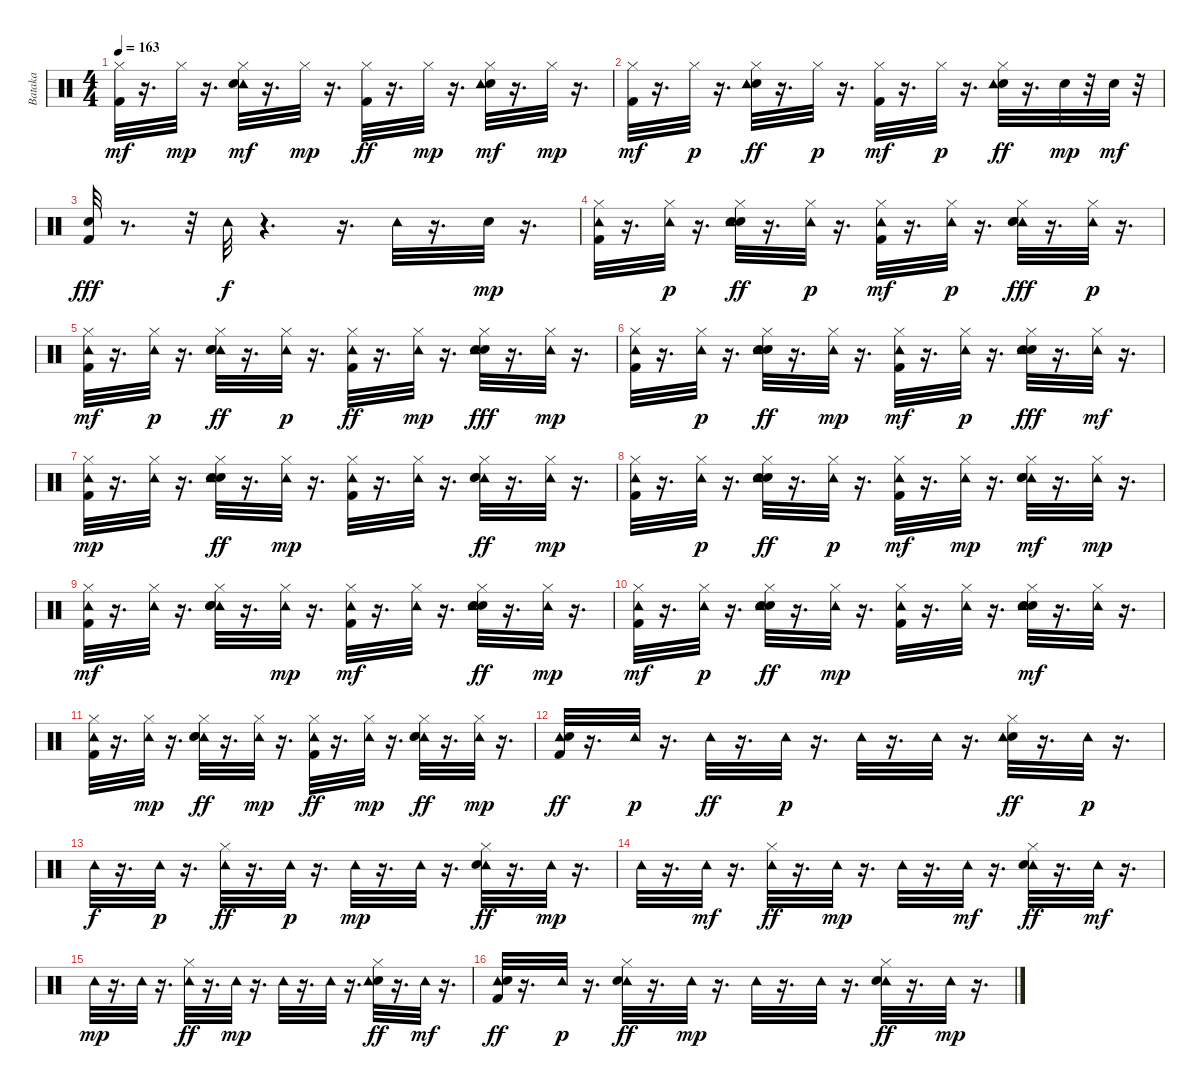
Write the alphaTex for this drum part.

\track ("Bataka" "Bataka") {instrument percussion}
\staff {score}
\articulation defaults
\ts (4 4)
\tempo 163
\clef neutral
\ks c
("Hi-Hat (closed)" "Kick (hit) 2").32{dy mf} r.16{d} "Hi-Hat (closed)".32{dy mp} r.16{d} ("Tambourine (hit)" "Electric Snare (hit)" "Hi-Hat (closed)").32{dy mf} r.16{d} "Hi-Hat (closed)".32{dy mp} r.16{d} ("Hi-Hat (closed)" "Kick (hit) 2").32{dy ff} r.16{d} "Hi-Hat (closed)".32{dy mp} r.16{d} ("Electric Snare (hit)" "Tambourine (hit)" "Hi-Hat (closed)").32{dy mf} r.16{d} "Hi-Hat (closed)".32{dy mp} r.16{d} |
("Kick (hit) 2" "Hi-Hat (closed)").32{dy mf} r.16{d} "Hi-Hat (closed)".32{dy p} r.16{d} ("Hi-Hat (closed)" "Electric Snare (hit)" "Tambourine (hit)").32{dy ff} r.16{d} "Hi-Hat (closed)".32{dy p} r.16{d} ("Kick (hit) 2" "Hi-Hat (closed)").32{dy mf} r.16{d} "Hi-Hat (closed)".32{dy p} r.16{d} ("Hi-Hat (closed)" "Electric Snare (hit)" "Tambourine (hit)").32{dy ff} r.16{d} "Electric Snare (hit)".32{dy mp} r.32 "Electric Snare (hit)".32{dy mf} r.32 |
("Kick (hit) 2" "Electric Snare (hit)").32{dy fff} r.8{d} r.32 "Tambourine (hit)".32{dy f} r.4{d} r.16{d} "Tambourine (hit)".32 r.16{d} "Electric Snare (hit)".32{dy mp} r.16{d} |
("Kick (hit) 2" "Hi-Hat (closed)" "Tambourine (hit)").32 r.16{d} ("Tambourine (hit)" "Hi-Hat (closed)").32{dy p} r.16{d} ("Hi-Hat (closed)" "Hand Clap (hit)" "Electric Snare (hit)" "Tambourine (hit)").32{dy ff} r.16{d} ("Hi-Hat (closed)" "Tambourine (hit)").32{dy p} r.16{d} ("Tambourine (hit)" "Kick (hit) 2" "Hi-Hat (closed)").32{dy mf} r.16{d} ("Hi-Hat (closed)" "Tambourine (hit)").32{dy p} r.16{d} ("Tambourine (hit)" "Hi-Hat (closed)" "Hand Clap (hit)" "Electric Snare (hit)").32{dy fff} r.16{d} ("Hi-Hat (closed)" "Tambourine (hit)").32{dy p} r.16{d} |
("Hi-Hat (closed)" "Tambourine (hit)" "Kick (hit) 2").32{dy mf} r.16{d} ("Hi-Hat (closed)" "Tambourine (hit)").32{dy p} r.16{d} ("Tambourine (hit)" "Hand Clap (hit)" "Hi-Hat (closed)" "Electric Snare (hit)").32{dy ff} r.16{d} ("Hi-Hat (closed)" "Tambourine (hit)").32{dy p} r.16{d} ("Hi-Hat (closed)" "Tambourine (hit)" "Kick (hit) 2").32{dy ff} r.16{d} ("Hi-Hat (closed)" "Tambourine (hit)").32{dy mp} r.16{d} ("Hi-Hat (closed)" "Hand Clap (hit)" "Tambourine (hit)" "Electric Snare (hit)").32{dy fff} r.16{d} ("Hi-Hat (closed)" "Tambourine (hit)").32{dy mp} r.16{d} |
("Kick (hit) 2" "Hi-Hat (closed)" "Tambourine (hit)").32 r.16{d} ("Tambourine (hit)" "Hi-Hat (closed)").32{dy p} r.16{d} ("Electric Snare (hit)" "Hi-Hat (closed)" "Tambourine (hit)" "Hand Clap (hit)").32{dy ff} r.16{d} ("Hi-Hat (closed)" "Tambourine (hit)").32{dy mp} r.16{d} ("Tambourine (hit)" "Hi-Hat (closed)" "Kick (hit) 2").32{dy mf} r.16{d} ("Tambourine (hit)" "Hi-Hat (closed)").32{dy p} r.16{d} ("Hi-Hat (closed)" "Hand Clap (hit)" "Tambourine (hit)" "Electric Snare (hit)").32{dy fff} r.16{d} ("Hi-Hat (closed)" "Tambourine (hit)").32{dy mf} r.16{d} |
("Hi-Hat (closed)" "Kick (hit) 2" "Tambourine (hit)").32{dy mp} r.16{d} ("Tambourine (hit)" "Hi-Hat (closed)").32 r.16{d} ("Electric Snare (hit)" "Hand Clap (hit)" "Tambourine (hit)" "Hi-Hat (closed)").32{dy ff} r.16{d} ("Tambourine (hit)" "Hi-Hat (closed)").32{dy mp} r.16{d} ("Kick (hit) 2" "Hi-Hat (closed)" "Tambourine (hit)").32 r.16{d} ("Hi-Hat (closed)" "Tambourine (hit)").32 r.16{d} ("Tambourine (hit)" "Hi-Hat (closed)" "Hand Clap (hit)" "Electric Snare (hit)").32{dy ff} r.16{d} ("Tambourine (hit)" "Hi-Hat (closed)").32{dy mp} r.16{d} |
("Hi-Hat (closed)" "Kick (hit) 2" "Tambourine (hit)").32 r.16{d} ("Tambourine (hit)" "Hi-Hat (closed)").32{dy p} r.16{d} ("Electric Snare (hit)" "Hand Clap (hit)" "Hi-Hat (closed)" "Tambourine (hit)").32{dy ff} r.16{d} ("Tambourine (hit)" "Hi-Hat (closed)").32{dy p} r.16{d} ("Kick (hit) 2" "Tambourine (hit)" "Hi-Hat (closed)").32{dy mf} r.16{d} ("Hi-Hat (closed)" "Tambourine (hit)").32{dy mp} r.16{d} ("Tambourine (hit)" "Hand Clap (hit)" "Electric Snare (hit)" "Hi-Hat (closed)").32{dy mf} r.16{d} ("Tambourine (hit)" "Hi-Hat (closed)").32{dy mp} r.16{d} |
("Kick (hit) 2" "Tambourine (hit)" "Hi-Hat (closed)").32{dy mf} r.16{d} ("Hi-Hat (closed)" "Tambourine (hit)").32 r.16{d} ("Tambourine (hit)" "Hand Clap (hit)" "Electric Snare (hit)" "Hi-Hat (closed)").32 r.16{d} ("Hi-Hat (closed)" "Tambourine (hit)").32{dy mp} r.16{d} ("Kick (hit) 2" "Tambourine (hit)" "Hi-Hat (closed)").32{dy mf} r.16{d} ("Hi-Hat (closed)" "Tambourine (hit)").32 r.16{d} ("Hand Clap (hit)" "Hi-Hat (closed)" "Electric Snare (hit)" "Tambourine (hit)").32{dy ff} r.16{d} ("Tambourine (hit)" "Hi-Hat (closed)").32{dy mp} r.16{d} |
("Hi-Hat (closed)" "Kick (hit) 2" "Tambourine (hit)").32{dy mf} r.16{d} ("Tambourine (hit)" "Hi-Hat (closed)").32{dy p} r.16{d} ("Hand Clap (hit)" "Hi-Hat (closed)" "Tambourine (hit)" "Electric Snare (hit)").32{dy ff} r.16{d} ("Hi-Hat (closed)" "Tambourine (hit)").32{dy mp} r.16{d} ("Hi-Hat (closed)" "Tambourine (hit)" "Kick (hit) 2").32 r.16{d} ("Hi-Hat (closed)" "Tambourine (hit)").32 r.16{d} ("Electric Snare (hit)" "Tambourine (hit)" "Hand Clap (hit)" "Hi-Hat (closed)").32{dy mf} r.16{d} ("Hi-Hat (closed)" "Tambourine (hit)").32 r.16{d} |
("Kick (hit) 2" "Tambourine (hit)" "Hi-Hat (closed)").32 r.16{d} ("Tambourine (hit)" "Hi-Hat (closed)").32{dy mp} r.16{d} ("Tambourine (hit)" "Hand Clap (hit)" "Electric Snare (hit)" "Hi-Hat (closed)").32{dy ff} r.16{d} ("Tambourine (hit)" "Hi-Hat (closed)").32{dy mp} r.16{d} ("Hi-Hat (closed)" "Tambourine (hit)" "Kick (hit) 2").32{dy ff} r.16{d} ("Hi-Hat (closed)" "Tambourine (hit)").32{dy mp} r.16{d} ("Hi-Hat (closed)" "Tambourine (hit)" "Electric Snare (hit)" "Hand Clap (hit)").32{dy ff} r.16{d} ("Tambourine (hit)" "Hi-Hat (closed)").32{dy mp} r.16{d} |
("Tambourine (hit)" "Electric Snare (hit)" "Kick (hit) 2").32{dy ff} r.16{d} "Tambourine (hit)".32{dy p} r.16{d} "Tambourine (hit)".32{dy ff} r.16{d} "Tambourine (hit)".32{dy p} r.16{d} "Tambourine (hit)".32 r.16{d} "Tambourine (hit)".32 r.16{d} ("Hand Clap (hit)" "Tambourine (hit)" "Hi-Hat (closed)").32{dy ff} r.16{d} "Tambourine (hit)".32{dy p} r.16{d} |
"Tambourine (hit)".32{dy f} r.16{d} "Tambourine (hit)".32{dy p} r.16{d} ("Tambourine (hit)" "Hi-Hat (closed)").32{dy ff} r.16{d} "Tambourine (hit)".32{dy p} r.16{d} "Tambourine (hit)".32{dy mp} r.16{d} "Tambourine (hit)".32 r.16{d} ("Hi-Hat (closed)" "Tambourine (hit)" "Hand Clap (hit)").32{dy ff} r.16{d} "Tambourine (hit)".32{dy mp} r.16{d} |
"Tambourine (hit)".32 r.16{d} "Tambourine (hit)".32{dy mf} r.16{d} ("Hi-Hat (closed)" "Tambourine (hit)").32{dy ff} r.16{d} "Tambourine (hit)".32{dy mp} r.16{d} "Tambourine (hit)".32 r.16{d} "Tambourine (hit)".32{dy mf} r.16{d} ("Hi-Hat (closed)" "Tambourine (hit)" "Hand Clap (hit)").32{dy ff} r.16{d} "Tambourine (hit)".32{dy mf} r.16{d} |
"Tambourine (hit)".32{dy mp} r.16{d} "Tambourine (hit)".32 r.16{d} ("Hi-Hat (closed)" "Tambourine (hit)").32{dy ff} r.16{d} "Tambourine (hit)".32{dy mp} r.16{d} "Tambourine (hit)".32 r.16{d} "Tambourine (hit)".32 r.16{d} ("Hand Clap (hit)" "Tambourine (hit)" "Hi-Hat (closed)").32{dy ff} r.16{d} "Tambourine (hit)".32{dy mf} r.16{d} |
("Tambourine (hit)" "Kick (hit) 2" "Electric Snare (hit)").32{dy ff} r.16{d} "Tambourine (hit)".32{dy p} r.16{d} ("Tambourine (hit)" "Hand Clap (hit)" "Hi-Hat (closed)").32{dy ff} r.16{d} "Tambourine (hit)".32{dy mp} r.16{d} "Tambourine (hit)".32 r.16{d} "Tambourine (hit)".32 r.16{d} ("Tambourine (hit)" "Hand Clap (hit)" "Hi-Hat (closed)").32{dy ff} r.16{d} "Tambourine (hit)".32{dy mp} r.16{d}
